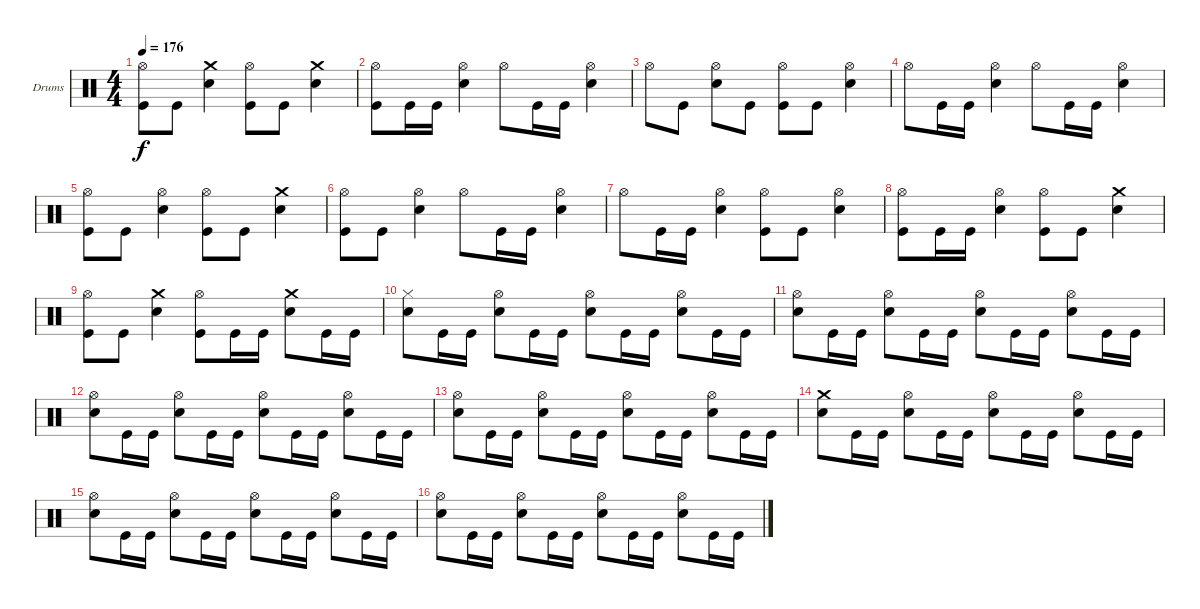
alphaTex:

\bracketExtendMode groupsimilarinstruments
\firstSystemTrackNameOrientation horizontal
\otherSystemsTrackNameOrientation horizontal
\track ("Drums" "Drums") {instrument percussion}
\staff {score}
\articulation defaults
\ts (4 4)
\tempo 176
\clef neutral
\ks c
("Hi-Hat (open)" "Kick (hit)").8{dy f} "Kick (hit)".8 ("Crash medium (hit)" "Snare (hit) 2").4 ("Hi-Hat (open)" "Kick (hit)").8 "Kick (hit)".8 ("Crash medium (hit)" "Snare (hit) 2").4 |
("Hi-Hat (open)" "Kick (hit)").8 "Kick (hit)".16 "Kick (hit)".16 ("Hi-Hat (open)" "Snare (hit) 2").4 "Hi-Hat (open)".8 "Kick (hit)".16 "Kick (hit)".16 ("Hi-Hat (open)" "Snare (hit) 2").4 |
"Hi-Hat (open)".8 "Kick (hit)".8 ("Hi-Hat (open)" "Snare (hit) 2").8 "Kick (hit)".8 ("Hi-Hat (open)" "Kick (hit)").8 "Kick (hit)".8 ("Hi-Hat (open)" "Snare (hit) 2").4 |
"Hi-Hat (open)".8 "Kick (hit)".16 "Kick (hit)".16 ("Hi-Hat (open)" "Snare (hit) 2").4 "Hi-Hat (open)".8 "Kick (hit)".16 "Kick (hit)".16 ("Hi-Hat (open)" "Snare (hit) 2").4 |
("Hi-Hat (open)" "Kick (hit)").8 "Kick (hit)".8 ("Hi-Hat (open)" "Snare (hit) 2").4 ("Hi-Hat (open)" "Kick (hit)").8 "Kick (hit)".8 ("Snare (hit) 2" "Crash medium (hit)").4 |
("Hi-Hat (open)" "Kick (hit)").8 "Kick (hit)".8 ("Hi-Hat (open)" "Snare (hit) 2").4 "Hi-Hat (open)".8 "Kick (hit)".16 "Kick (hit)".16 ("Hi-Hat (open)" "Snare (hit) 2").4 |
"Hi-Hat (open)".8 "Kick (hit)".16 "Kick (hit)".16 ("Hi-Hat (open)" "Snare (hit) 2").4 ("Hi-Hat (open)" "Kick (hit)").8 "Kick (hit)".8 ("Hi-Hat (open)" "Snare (hit) 2").4 |
("Hi-Hat (open)" "Kick (hit)").8 "Kick (hit)".16 "Kick (hit)".16 ("Hi-Hat (open)" "Snare (hit) 2").4 ("Hi-Hat (open)" "Kick (hit)").8 "Kick (hit)".8 ("Crash medium (hit)" "Snare (hit) 2").4 |
("Hi-Hat (open)" "Kick (hit)").8 "Kick (hit)".8 ("Crash medium (hit)" "Snare (hit) 2").4 ("Hi-Hat (open)" "Kick (hit)").8 "Kick (hit)".16 "Kick (hit)".16 ("Crash medium (hit)" "Snare (hit) 2").8 "Kick (hit)".16 "Kick (hit)".16 |
("Hi-Hat (closed)" "Snare (hit) 2").8 "Kick (hit)".16 "Kick (hit)".16 ("Hi-Hat (open)" "Snare (hit) 2").8 "Kick (hit)".16 "Kick (hit)".16 ("Hi-Hat (open)" "Snare (hit) 2").8 "Kick (hit)".16 "Kick (hit)".16 ("Hi-Hat (open)" "Snare (hit) 2").8 "Kick (hit)".16 "Kick (hit)".16 |
("Hi-Hat (open)" "Snare (hit) 2").8 "Kick (hit)".16 "Kick (hit)".16 ("Hi-Hat (open)" "Snare (hit) 2").8 "Kick (hit)".16 "Kick (hit)".16 ("Hi-Hat (open)" "Snare (hit) 2").8 "Kick (hit)".16 "Kick (hit)".16 ("Hi-Hat (open)" "Snare (hit) 2").8 "Kick (hit)".16 "Kick (hit)".16 |
("Hi-Hat (open)" "Snare (hit) 2").8 "Kick (hit)".16 "Kick (hit)".16 ("Hi-Hat (open)" "Snare (hit) 2").8 "Kick (hit)".16 "Kick (hit)".16 ("Hi-Hat (open)" "Snare (hit) 2").8 "Kick (hit)".16 "Kick (hit)".16 ("Hi-Hat (open)" "Snare (hit) 2").8 "Kick (hit)".16 "Kick (hit)".16 |
("Hi-Hat (open)" "Snare (hit) 2").8 "Kick (hit)".16 "Kick (hit)".16 ("Hi-Hat (open)" "Snare (hit) 2").8 "Kick (hit)".16 "Kick (hit)".16 ("Hi-Hat (open)" "Snare (hit) 2").8 "Kick (hit)".16 "Kick (hit)".16 ("Hi-Hat (open)" "Snare (hit) 2").8 "Kick (hit)".16 "Kick (hit)".16 |
("Snare (hit) 2" "Crash medium (hit)").8 "Kick (hit)".16 "Kick (hit)".16 ("Hi-Hat (open)" "Snare (hit) 2").8 "Kick (hit)".16 "Kick (hit)".16 ("Hi-Hat (open)" "Snare (hit) 2").8 "Kick (hit)".16 "Kick (hit)".16 ("Hi-Hat (open)" "Snare (hit) 2").8 "Kick (hit)".16 "Kick (hit)".16 |
("Hi-Hat (open)" "Snare (hit) 2").8 "Kick (hit)".16 "Kick (hit)".16 ("Hi-Hat (open)" "Snare (hit) 2").8 "Kick (hit)".16 "Kick (hit)".16 ("Hi-Hat (open)" "Snare (hit) 2").8 "Kick (hit)".16 "Kick (hit)".16 ("Hi-Hat (open)" "Snare (hit) 2").8 "Kick (hit)".16 "Kick (hit)".16 |
("Hi-Hat (open)" "Snare (hit) 2").8 "Kick (hit)".16 "Kick (hit)".16 ("Hi-Hat (open)" "Snare (hit) 2").8 "Kick (hit)".16 "Kick (hit)".16 ("Hi-Hat (open)" "Snare (hit) 2").8 "Kick (hit)".16 "Kick (hit)".16 ("Hi-Hat (open)" "Snare (hit) 2").8 "Kick (hit)".16 "Kick (hit)".16
